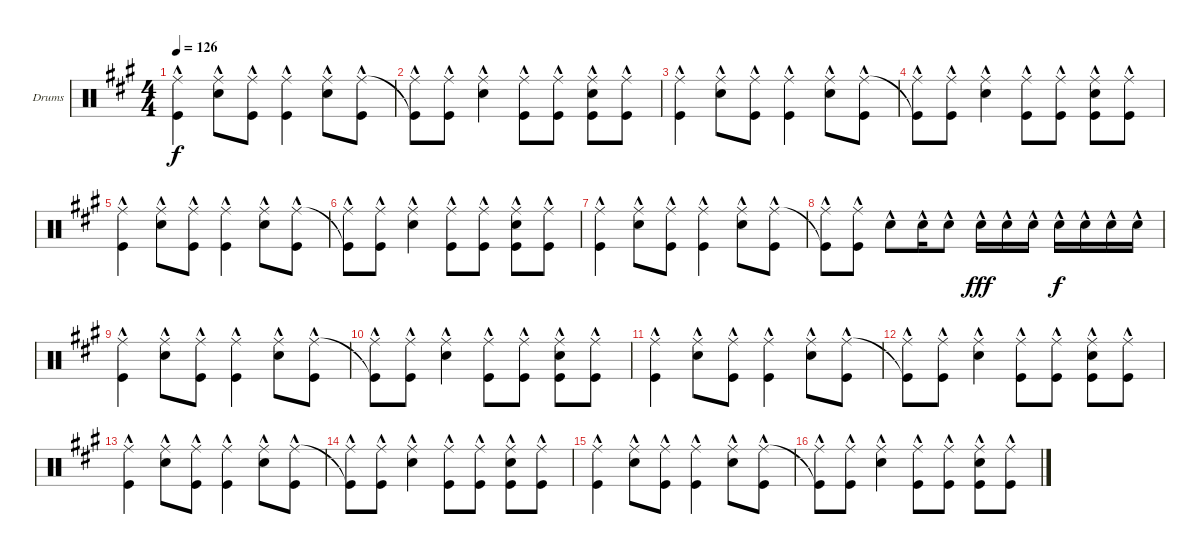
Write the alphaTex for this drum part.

\defaultSystemsLayout 4
\bracketExtendMode groupsimilarinstruments
\firstSystemTrackNameOrientation horizontal
\otherSystemsTrackNameOrientation horizontal
\track ("Drumkit" "Drums") {instrument percussion}
\staff {score}
\articulation defaults
\ts (4 4)
\tempo 126
\clef neutral
\scale
1.05801
\ks a
("Kick (hit)"{hac} "Ride (middle)"{hac}).4{dy f} ("Snare (hit) 2"{hac} "Ride (middle)"{hac}).8 ("Kick (hit)"{hac} "Ride (middle)"{hac}).8 ("Kick (hit)"{hac} "Ride (middle)"{hac}).4 ("Snare (hit) 2"{hac} "Ride (middle)"{hac}).8 ("Kick (hit)"{hac} "Ride (middle)"{hac}).8 |
\scale
0.941992 ("Ride (middle)"{hac} "Kick (hit)"{t}).8 ("Kick (hit)"{hac} "Ride (middle)"{hac}).8 ("Snare (hit) 2"{hac} "Ride (middle)"{hac}).4 ("Ride (middle)"{hac} "Kick (hit)"{hac}).8 ("Kick (hit)"{hac} "Ride (middle)"{hac}).8 ("Kick (hit)"{hac} "Snare (hit) 2"{hac} "Ride (middle)"{hac}).8 ("Kick (hit)"{hac} "Ride (middle)"{hac}).8 |
\scale
1.05801 ("Kick (hit)"{hac} "Ride (middle)"{hac}).4 ("Snare (hit) 2"{hac} "Ride (middle)"{hac}).8 ("Kick (hit)"{hac} "Ride (middle)"{hac}).8 ("Kick (hit)"{hac} "Ride (middle)"{hac}).4 ("Snare (hit) 2"{hac} "Ride (middle)"{hac}).8 ("Kick (hit)"{hac} "Ride (middle)"{hac}).8 |
\scale
0.941992 ("Ride (middle)"{hac} "Kick (hit)"{t}).8 ("Kick (hit)"{hac} "Ride (middle)"{hac}).8 ("Snare (hit) 2"{hac} "Ride (middle)"{hac}).4 ("Ride (middle)"{hac} "Kick (hit)"{hac}).8 ("Kick (hit)"{hac} "Ride (middle)"{hac}).8 ("Kick (hit)"{hac} "Snare (hit) 2"{hac} "Ride (middle)"{hac}).8 ("Kick (hit)"{hac} "Ride (middle)"{hac}).8 |
\scale
1.05801 ("Kick (hit)"{hac} "Ride (middle)"{hac}).4 ("Snare (hit) 2"{hac} "Ride (middle)"{hac}).8 ("Kick (hit)"{hac} "Ride (middle)"{hac}).8 ("Kick (hit)"{hac} "Ride (middle)"{hac}).4 ("Snare (hit) 2"{hac} "Ride (middle)"{hac}).8 ("Kick (hit)"{hac} "Ride (middle)"{hac}).8 |
\scale
0.941992 ("Ride (middle)"{hac} "Kick (hit)"{t}).8 ("Kick (hit)"{hac} "Ride (middle)"{hac}).8 ("Snare (hit) 2"{hac} "Ride (middle)"{hac}).4 ("Ride (middle)"{hac} "Kick (hit)"{hac}).8 ("Kick (hit)"{hac} "Ride (middle)"{hac}).8 ("Kick (hit)"{hac} "Snare (hit) 2"{hac} "Ride (middle)"{hac}).8 ("Kick (hit)"{hac} "Ride (middle)"{hac}).8 |
\scale
1.05801 ("Kick (hit)"{hac} "Ride (middle)"{hac}).4 ("Snare (hit) 2"{hac} "Ride (middle)"{hac}).8 ("Kick (hit)"{hac} "Ride (middle)"{hac}).8 ("Kick (hit)"{hac} "Ride (middle)"{hac}).4 ("Snare (hit) 2"{hac} "Ride (middle)"{hac}).8 ("Kick (hit)"{hac} "Ride (middle)"{hac}).8 |
\scale
0.941992 ("Ride (middle)"{hac} "Kick (hit)"{t}).8 ("Kick (hit)"{hac} "Ride (middle)"{hac}).8 "Snare (hit) 2"{hac}.8 "Snare (hit) 2"{hac}.16 "Snare (hit) 2"{hac}.8 "Snare (hit) 2"{hac}.16{dy fff} "Snare (hit) 2"{hac}.16 "Snare (hit) 2"{hac}.16 "Snare (hit) 2"{hac}.16{dy f} "Snare (hit) 2"{hac}.16 "Snare (hit) 2"{hac}.16 "Snare (hit) 2"{hac}.16 |
\scale
1.05801 ("Kick (hit)"{hac} "Ride (middle)"{hac}).4 ("Snare (hit) 2"{hac} "Ride (middle)"{hac}).8 ("Kick (hit)"{hac} "Ride (middle)"{hac}).8 ("Kick (hit)"{hac} "Ride (middle)"{hac}).4 ("Snare (hit) 2"{hac} "Ride (middle)"{hac}).8 ("Kick (hit)"{hac} "Ride (middle)"{hac}).8 |
\scale
0.941992 ("Ride (middle)"{hac} "Kick (hit)"{t}).8 ("Kick (hit)"{hac} "Ride (middle)"{hac}).8 ("Snare (hit) 2"{hac} "Ride (middle)"{hac}).4 ("Ride (middle)"{hac} "Kick (hit)"{hac}).8 ("Kick (hit)"{hac} "Ride (middle)"{hac}).8 ("Kick (hit)"{hac} "Snare (hit) 2"{hac} "Ride (middle)"{hac}).8 ("Kick (hit)"{hac} "Ride (middle)"{hac}).8 |
\scale
1.05801 ("Kick (hit)"{hac} "Ride (middle)"{hac}).4 ("Snare (hit) 2"{hac} "Ride (middle)"{hac}).8 ("Kick (hit)"{hac} "Ride (middle)"{hac}).8 ("Kick (hit)"{hac} "Ride (middle)"{hac}).4 ("Snare (hit) 2"{hac} "Ride (middle)"{hac}).8 ("Kick (hit)"{hac} "Ride (middle)"{hac}).8 |
\scale
0.941992 ("Ride (middle)"{hac} "Kick (hit)"{t}).8 ("Kick (hit)"{hac} "Ride (middle)"{hac}).8 ("Snare (hit) 2"{hac} "Ride (middle)"{hac}).4 ("Ride (middle)"{hac} "Kick (hit)"{hac}).8 ("Kick (hit)"{hac} "Ride (middle)"{hac}).8 ("Kick (hit)"{hac} "Snare (hit) 2"{hac} "Ride (middle)"{hac}).8 ("Kick (hit)"{hac} "Ride (middle)"{hac}).8 |
\scale
1.05801 ("Kick (hit)"{hac} "Ride (middle)"{hac}).4 ("Snare (hit) 2"{hac} "Ride (middle)"{hac}).8 ("Kick (hit)"{hac} "Ride (middle)"{hac}).8 ("Kick (hit)"{hac} "Ride (middle)"{hac}).4 ("Snare (hit) 2"{hac} "Ride (middle)"{hac}).8 ("Kick (hit)"{hac} "Ride (middle)"{hac}).8 |
\scale
0.941992 ("Ride (middle)"{hac} "Kick (hit)"{t}).8 ("Kick (hit)"{hac} "Ride (middle)"{hac}).8 ("Snare (hit) 2"{hac} "Ride (middle)"{hac}).4 ("Ride (middle)"{hac} "Kick (hit)"{hac}).8 ("Kick (hit)"{hac} "Ride (middle)"{hac}).8 ("Kick (hit)"{hac} "Snare (hit) 2"{hac} "Ride (middle)"{hac}).8 ("Kick (hit)"{hac} "Ride (middle)"{hac}).8 |
\scale
1.05801 ("Kick (hit)"{hac} "Ride (middle)"{hac}).4 ("Snare (hit) 2"{hac} "Ride (middle)"{hac}).8 ("Kick (hit)"{hac} "Ride (middle)"{hac}).8 ("Kick (hit)"{hac} "Ride (middle)"{hac}).4 ("Snare (hit) 2"{hac} "Ride (middle)"{hac}).8 ("Kick (hit)"{hac} "Ride (middle)"{hac}).8 |
\scale
0.941992 ("Ride (middle)"{hac} "Kick (hit)"{t}).8 ("Kick (hit)"{hac} "Ride (middle)"{hac}).8 ("Snare (hit) 2"{hac} "Ride (middle)"{hac}).4 ("Ride (middle)"{hac} "Kick (hit)"{hac}).8 ("Kick (hit)"{hac} "Ride (middle)"{hac}).8 ("Kick (hit)"{hac} "Snare (hit) 2"{hac} "Ride (middle)"{hac}).8 ("Kick (hit)"{hac} "Ride (middle)"{hac}).8
